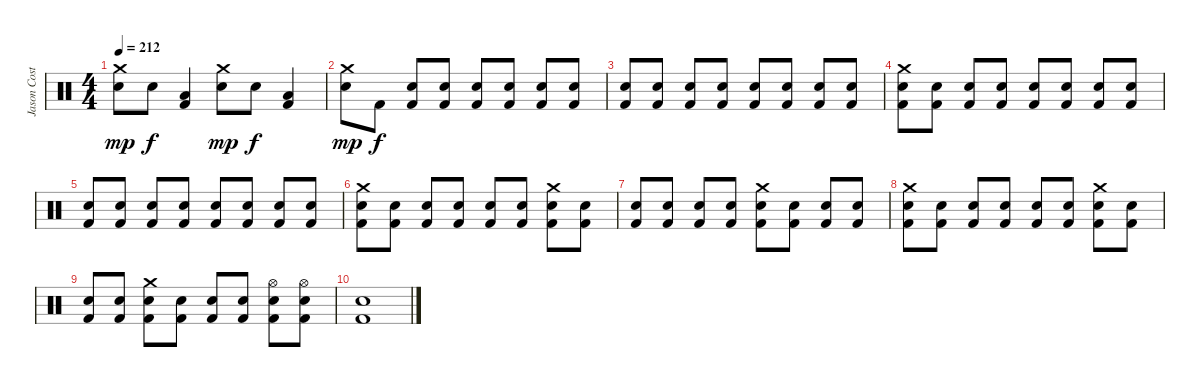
\track ("Jason Costa" "Jason Cost") {instrument percussion}
\staff {score}
\articulation defaults
\ts (4 4)
\tempo 212
\clef neutral
\ks c
("Crash medium (hit)" "Electric Snare (hit)").8{dy mp} "Electric Snare (hit)".8{dy f} ("Low Tom (hit)" "Kick (hit) 2").4 ("Crash medium (hit)" "Electric Snare (hit)").8{dy mp} "Electric Snare (hit)".8{dy f} ("Low Tom (hit)" "Kick (hit) 2").4 |
("Crash medium (hit)" "Electric Snare (hit)").8{dy mp} "Kick (hit) 2".8{dy f} ("Electric Snare (hit)" "Kick (hit) 2").8 ("Electric Snare (hit)" "Kick (hit) 2").8 ("Electric Snare (hit)" "Kick (hit) 2").8 ("Electric Snare (hit)" "Kick (hit) 2").8 ("Electric Snare (hit)" "Kick (hit) 2").8 ("Electric Snare (hit)" "Kick (hit) 2").8 |
("Electric Snare (hit)" "Kick (hit) 2").8 ("Electric Snare (hit)" "Kick (hit) 2").8 ("Electric Snare (hit)" "Kick (hit) 2").8 ("Electric Snare (hit)" "Kick (hit) 2").8 ("Electric Snare (hit)" "Kick (hit) 2").8 ("Electric Snare (hit)" "Kick (hit) 2").8 ("Electric Snare (hit)" "Kick (hit) 2").8 ("Electric Snare (hit)" "Kick (hit) 2").8 |
("Crash medium (hit)" "Electric Snare (hit)" "Kick (hit) 2").8 ("Electric Snare (hit)" "Kick (hit) 2").8 ("Electric Snare (hit)" "Kick (hit) 2").8 ("Electric Snare (hit)" "Kick (hit) 2").8 ("Electric Snare (hit)" "Kick (hit) 2").8 ("Electric Snare (hit)" "Kick (hit) 2").8 ("Electric Snare (hit)" "Kick (hit) 2").8 ("Electric Snare (hit)" "Kick (hit) 2").8 |
("Electric Snare (hit)" "Kick (hit) 2").8 ("Electric Snare (hit)" "Kick (hit) 2").8 ("Electric Snare (hit)" "Kick (hit) 2").8 ("Electric Snare (hit)" "Kick (hit) 2").8 ("Electric Snare (hit)" "Kick (hit) 2").8 ("Electric Snare (hit)" "Kick (hit) 2").8 ("Electric Snare (hit)" "Kick (hit) 2").8 ("Electric Snare (hit)" "Kick (hit) 2").8 |
("Crash medium (hit)" "Electric Snare (hit)" "Kick (hit) 2").8 ("Electric Snare (hit)" "Kick (hit) 2").8 ("Electric Snare (hit)" "Kick (hit) 2").8 ("Electric Snare (hit)" "Kick (hit) 2").8 ("Electric Snare (hit)" "Kick (hit) 2").8 ("Electric Snare (hit)" "Kick (hit) 2").8 ("Crash medium (hit)" "Electric Snare (hit)" "Kick (hit) 2").8 ("Electric Snare (hit)" "Kick (hit) 2").8 |
("Electric Snare (hit)" "Kick (hit) 2").8 ("Electric Snare (hit)" "Kick (hit) 2").8 ("Electric Snare (hit)" "Kick (hit) 2").8 ("Electric Snare (hit)" "Kick (hit) 2").8 ("Crash medium (hit)" "Electric Snare (hit)" "Kick (hit) 2").8 ("Electric Snare (hit)" "Kick (hit) 2").8 ("Electric Snare (hit)" "Kick (hit) 2").8 ("Electric Snare (hit)" "Kick (hit) 2").8 |
("Crash medium (hit)" "Electric Snare (hit)" "Kick (hit) 2").8 ("Electric Snare (hit)" "Kick (hit) 2").8 ("Electric Snare (hit)" "Kick (hit) 2").8 ("Electric Snare (hit)" "Kick (hit) 2").8 ("Electric Snare (hit)" "Kick (hit) 2").8 ("Electric Snare (hit)" "Kick (hit) 2").8 ("Crash medium (hit)" "Electric Snare (hit)" "Kick (hit) 2").8 ("Electric Snare (hit)" "Kick (hit) 2").8 |
("Electric Snare (hit)" "Kick (hit) 2").8 ("Electric Snare (hit)" "Kick (hit) 2").8 ("Crash medium (hit)" "Electric Snare (hit)" "Kick (hit) 2").8 ("Electric Snare (hit)" "Kick (hit) 2").8 ("Electric Snare (hit)" "Kick (hit) 2").8 ("Electric Snare (hit)" "Kick (hit) 2").8 ("Hi-Hat (open)" "Electric Snare (hit)" "Kick (hit) 2").8 ("Hi-Hat (open)" "Electric Snare (hit)" "Kick (hit) 2").8 |
("Electric Snare (hit)" "Kick (hit) 2").1
